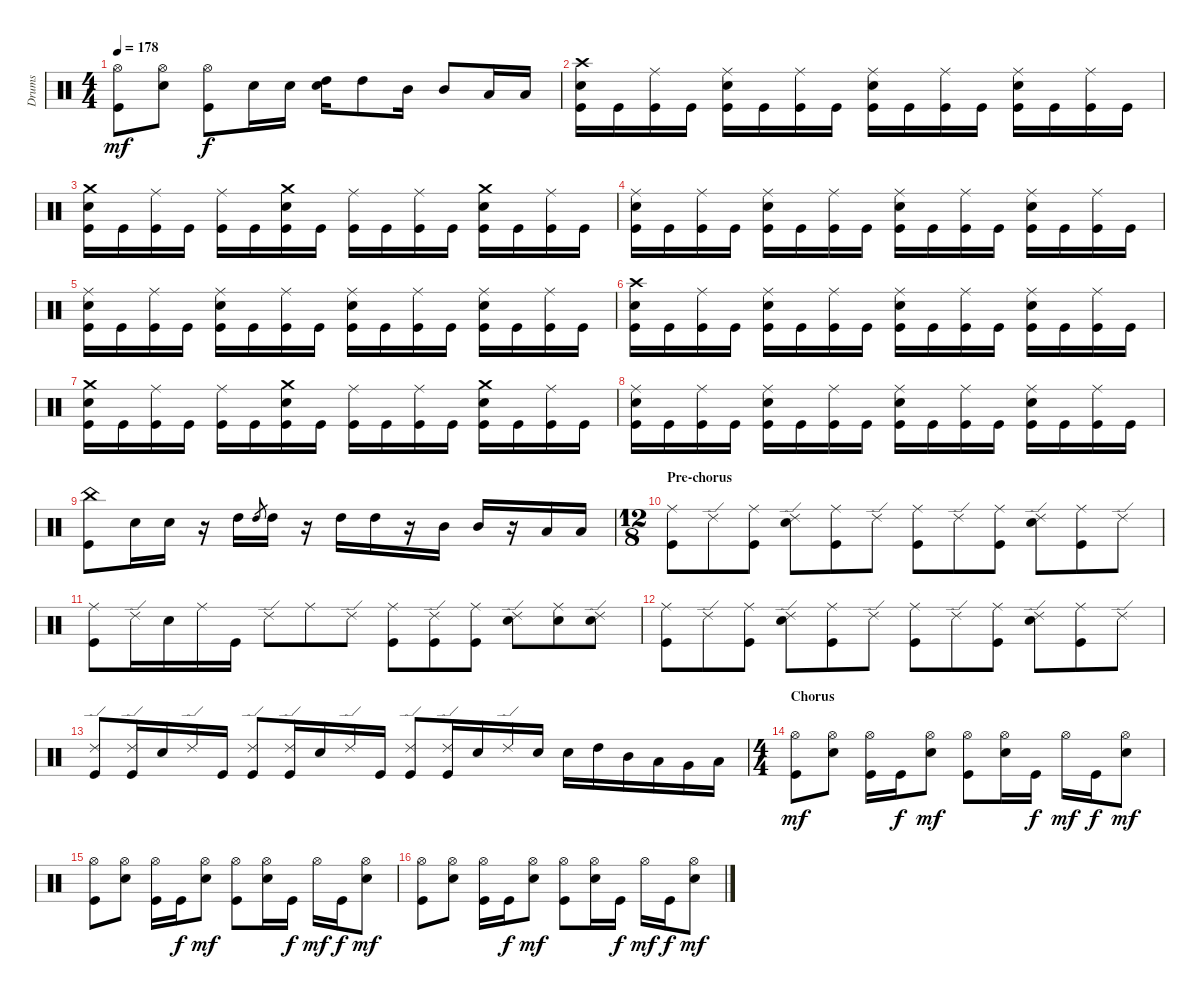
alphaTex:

\track ("Drums" "Drums") {instrument percussion}
\staff {score}
\articulation defaults
\ts (4 4)
\tempo 178
\clef neutral
\ks c
("Hi-Hat (open)" "Kick (hit)").8{dy mf} ("Hi-Hat (open)" "Electric Snare (hit)").8 ("Hi-Hat (open)" "Kick (hit)").8{dy f} "Electric Snare (hit)".16 "Electric Snare (hit)".16 ("Electric Snare (hit)" "High Tom (hit)").16 "High Tom (hit)".8 "Mid Tom (hit)".16 "Mid Tom (hit)".8 "Low Tom (hit)".16 "Low Tom (hit)".16 |
("Crash high (hit)" "Electric Snare (hit)" "Kick (hit)").16 "Kick (hit)".16 ("Ride (middle)" "Kick (hit)").16 "Kick (hit)".16 ("Ride (middle)" "Electric Snare (hit)" "Kick (hit)").16 "Kick (hit)".16 ("Ride (middle)" "Kick (hit)").16 "Kick (hit)".16 ("Ride (middle)" "Electric Snare (hit)" "Kick (hit)").16 "Kick (hit)".16 ("Ride (middle)" "Kick (hit)").16 "Kick (hit)".16 ("Ride (middle)" "Electric Snare (hit)" "Kick (hit)").16 "Kick (hit)".16 ("Ride (middle)" "Kick (hit)").16 "Kick (hit)".16 |
("Crash medium (hit)" "Electric Snare (hit)" "Kick (hit)").16 "Kick (hit)".16 ("Ride (middle)" "Kick (hit)").16 "Kick (hit)".16 ("Ride (middle)" "Kick (hit)").16 "Kick (hit)".16 ("Crash medium (hit)" "Electric Snare (hit)" "Kick (hit)").16 "Kick (hit)".16 ("Ride (middle)" "Kick (hit)").16 "Kick (hit)".16 ("Ride (middle)" "Kick (hit)").16 "Kick (hit)".16 ("Crash medium (hit)" "Electric Snare (hit)" "Kick (hit)").16 "Kick (hit)".16 ("Ride (middle)" "Kick (hit)").16 "Kick (hit)".16 |
("Ride (middle)" "Electric Snare (hit)" "Kick (hit)").16 "Kick (hit)".16 ("Ride (middle)" "Kick (hit)").16 "Kick (hit)".16 ("Ride (middle)" "Electric Snare (hit)" "Kick (hit)").16 "Kick (hit)".16 ("Ride (middle)" "Kick (hit)").16 "Kick (hit)".16 ("Ride (middle)" "Electric Snare (hit)" "Kick (hit)").16 "Kick (hit)".16 ("Ride (middle)" "Kick (hit)").16 "Kick (hit)".16 ("Ride (middle)" "Electric Snare (hit)" "Kick (hit)").16 "Kick (hit)".16 ("Ride (middle)" "Kick (hit)").16 "Kick (hit)".16 |
("Ride (middle)" "Electric Snare (hit)" "Kick (hit)").16 "Kick (hit)".16 ("Ride (middle)" "Kick (hit)").16 "Kick (hit)".16 ("Ride (middle)" "Electric Snare (hit)" "Kick (hit)").16 "Kick (hit)".16 ("Ride (middle)" "Kick (hit)").16 "Kick (hit)".16 ("Ride (middle)" "Electric Snare (hit)" "Kick (hit)").16 "Kick (hit)".16 ("Ride (middle)" "Kick (hit)").16 "Kick (hit)".16 ("Ride (middle)" "Electric Snare (hit)" "Kick (hit)").16 "Kick (hit)".16 ("Ride (middle)" "Kick (hit)").16 "Kick (hit)".16 |
("Crash high (hit)" "Electric Snare (hit)" "Kick (hit)").16 "Kick (hit)".16 ("Ride (middle)" "Kick (hit)").16 "Kick (hit)".16 ("Ride (middle)" "Electric Snare (hit)" "Kick (hit)").16 "Kick (hit)".16 ("Ride (middle)" "Kick (hit)").16 "Kick (hit)".16 ("Ride (middle)" "Electric Snare (hit)" "Kick (hit)").16 "Kick (hit)".16 ("Ride (middle)" "Kick (hit)").16 "Kick (hit)".16 ("Ride (middle)" "Electric Snare (hit)" "Kick (hit)").16 "Kick (hit)".16 ("Ride (middle)" "Kick (hit)").16 "Kick (hit)".16 |
("Crash medium (hit)" "Electric Snare (hit)" "Kick (hit)").16 "Kick (hit)".16 ("Ride (middle)" "Kick (hit)").16 "Kick (hit)".16 ("Ride (middle)" "Kick (hit)").16 "Kick (hit)".16 ("Crash medium (hit)" "Electric Snare (hit)" "Kick (hit)").16 "Kick (hit)".16 ("Ride (middle)" "Kick (hit)").16 "Kick (hit)".16 ("Ride (middle)" "Kick (hit)").16 "Kick (hit)".16 ("Crash medium (hit)" "Electric Snare (hit)" "Kick (hit)").16 "Kick (hit)".16 ("Ride (middle)" "Kick (hit)").16 "Kick (hit)".16 |
("Ride (middle)" "Electric Snare (hit)" "Kick (hit)").16 "Kick (hit)".16 ("Ride (middle)" "Kick (hit)").16 "Kick (hit)".16 ("Ride (middle)" "Electric Snare (hit)" "Kick (hit)").16 "Kick (hit)".16 ("Ride (middle)" "Kick (hit)").16 "Kick (hit)".16 ("Ride (middle)" "Electric Snare (hit)" "Kick (hit)").16 "Kick (hit)".16 ("Ride (middle)" "Kick (hit)").16 "Kick (hit)".16 ("Ride (middle)" "Electric Snare (hit)" "Kick (hit)").16 "Kick (hit)".16 ("Ride (middle)" "Kick (hit)").16 "Kick (hit)".16 |
("China (hit)" "Kick (hit)").8 "Electric Snare (hit)".16 "Electric Snare (hit)".16 r.16 "High Tom (hit)".16 "High Tom (hit)".8{gr} "High Tom (hit)".16 r.16 "High Tom (hit)".16 "High Tom (hit)".16 r.16 "Mid Tom (hit)".16 "Mid Tom (hit)".16 r.16 "Low Tom (hit)".16 "Low Tom (hit)".16 |
\ts (12 8)
\section ("" "Pre-chorus")
("Ride (middle)" "Kick (hit)").8 "Ride (edge) 2".8 ("Ride (middle)" "Kick (hit)").8 ("Ride (edge) 2" "Electric Snare (hit)").8 ("Ride (middle)" "Kick (hit)").8 "Ride (edge) 2".8 ("Ride (middle)" "Kick (hit)").8 "Ride (edge) 2".8 ("Ride (middle)" "Kick (hit)").8 ("Ride (edge) 2" "Electric Snare (hit)").8 ("Ride (middle)" "Kick (hit)").8 "Ride (edge) 2".8 |
("Ride (middle)" "Kick (hit)").8 "Ride (edge) 2".16 "Electric Snare (hit)".16 "Ride (middle)".16 "Kick (hit)".16 "Ride (edge) 2".8 "Ride (middle)".8 "Ride (edge) 2".8 ("Ride (middle)" "Kick (hit)").8 ("Ride (edge) 2" "Kick (hit)").8 ("Ride (middle)" "Kick (hit)").8 ("Ride (edge) 2" "Electric Snare (hit)").8 ("Ride (middle)" "Electric Snare (hit)").8 ("Ride (edge) 2" "Electric Snare (hit)").8 |
("Ride (middle)" "Kick (hit)").8 "Ride (edge) 2".8 ("Ride (middle)" "Kick (hit)").8 ("Ride (edge) 2" "Electric Snare (hit)").8 ("Ride (middle)" "Kick (hit)").8 "Ride (edge) 2".8 ("Ride (middle)" "Kick (hit)").8 "Ride (edge) 2".8 ("Ride (middle)" "Kick (hit)").8 ("Ride (edge) 2" "Electric Snare (hit)").8 ("Ride (middle)" "Kick (hit)").8 "Ride (edge) 2".8 |
("Ride (edge) 2" "Kick (hit)").8 ("Ride (edge) 2" "Kick (hit)").16 "Electric Snare (hit)".16 "Ride (edge) 2".16 "Kick (hit)".16 ("Ride (edge) 2" "Kick (hit)").8 ("Ride (edge) 2" "Kick (hit)").16 "Electric Snare (hit)".16 "Ride (edge) 2".16 "Kick (hit)".16 ("Ride (edge) 2" "Kick (hit)").8 ("Ride (edge) 2" "Kick (hit)").16 "Electric Snare (hit)".16 "Ride (edge) 2".16 "Electric Snare (hit)".16 "Electric Snare (hit)".16 "High Tom (hit)".16 "Mid Tom (hit)".16 "Low Tom (hit)".16 "Very Low Tom (hit)".16 "Low Floor Tom (hit)".16 |
\ts (4 4)
\section ("" "Chorus")
("Hi-Hat (open)" "Kick (hit)").8{dy mf} ("Hi-Hat (open)" "Electric Snare (hit)").8 ("Hi-Hat (open)" "Kick (hit)").16 "Kick (hit)".16{dy f} ("Hi-Hat (open)" "Electric Snare (hit)").8{dy mf} ("Hi-Hat (open)" "Kick (hit)").8 ("Hi-Hat (open)" "Electric Snare (hit)").16 "Kick (hit)".16{dy f} "Hi-Hat (open)".16{dy mf} "Kick (hit)".16{dy f} ("Hi-Hat (open)" "Electric Snare (hit)").8{dy mf} |
("Hi-Hat (open)" "Kick (hit)").8 ("Hi-Hat (open)" "Electric Snare (hit)").8 ("Hi-Hat (open)" "Kick (hit)").16 "Kick (hit)".16{dy f} ("Hi-Hat (open)" "Electric Snare (hit)").8{dy mf} ("Hi-Hat (open)" "Kick (hit)").8 ("Hi-Hat (open)" "Electric Snare (hit)").16 "Kick (hit)".16{dy f} "Hi-Hat (open)".16{dy mf} "Kick (hit)".16{dy f} ("Hi-Hat (open)" "Electric Snare (hit)").8{dy mf} |
("Hi-Hat (open)" "Kick (hit)").8 ("Hi-Hat (open)" "Electric Snare (hit)").8 ("Hi-Hat (open)" "Kick (hit)").16 "Kick (hit)".16{dy f} ("Hi-Hat (open)" "Electric Snare (hit)").8{dy mf} ("Hi-Hat (open)" "Kick (hit)").8 ("Hi-Hat (open)" "Electric Snare (hit)").16 "Kick (hit)".16{dy f} "Hi-Hat (open)".16{dy mf} "Kick (hit)".16{dy f} ("Hi-Hat (open)" "Electric Snare (hit)").8{dy mf}
